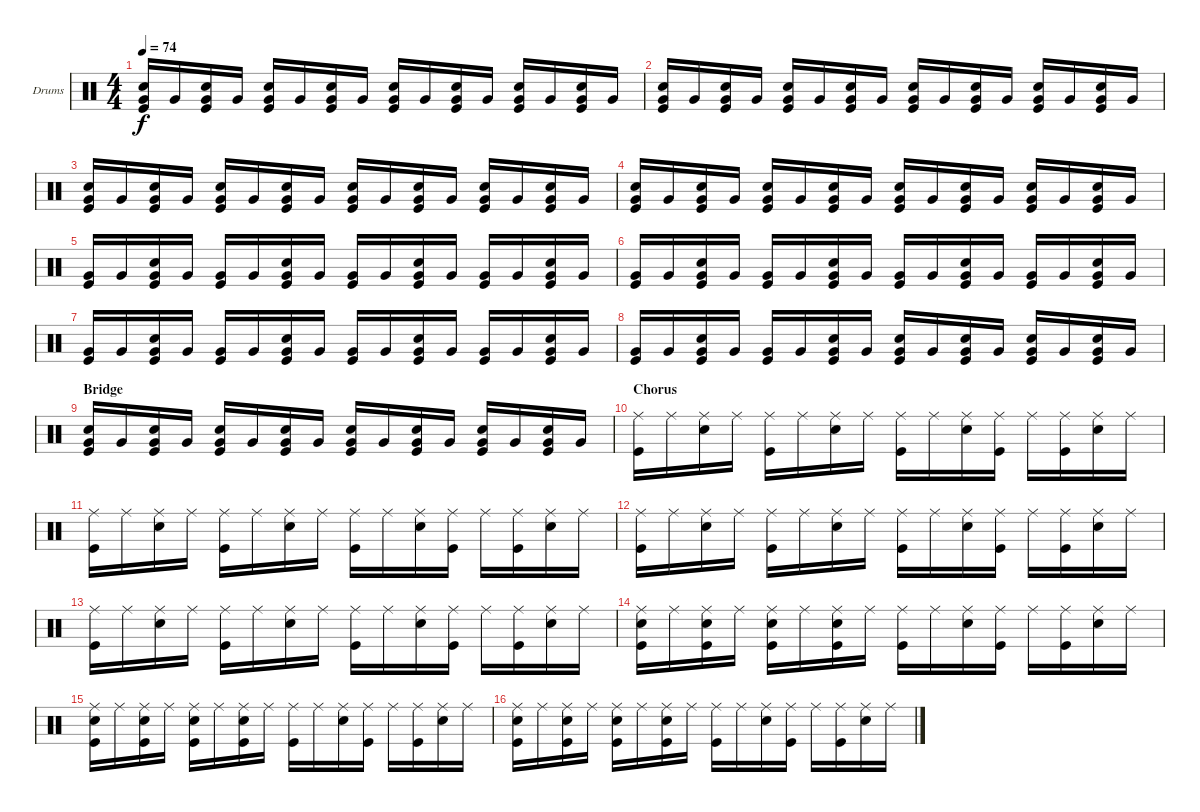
\bracketExtendMode groupsimilarinstruments
\firstSystemTrackNameOrientation horizontal
\otherSystemsTrackNameOrientation horizontal
\track ("Fabrizio" "Drums") {instrument percussion}
\staff {score}
\articulation defaults
\ts (4 4)
\tempo 74
\clef neutral
\ks c
("Very Low Tom (hit)" "Kick (hit)" "Snare (hit) 2").16{dy f} "Very Low Tom (hit)".16 ("Very Low Tom (hit)" "Kick (hit)" "Snare (hit) 2").16 "Very Low Tom (hit)".16 ("Very Low Tom (hit)" "Kick (hit)" "Snare (hit) 2").16 "Very Low Tom (hit)".16 ("Very Low Tom (hit)" "Kick (hit)" "Snare (hit) 2").16 "Very Low Tom (hit)".16 ("Very Low Tom (hit)" "Kick (hit)" "Snare (hit) 2").16 "Very Low Tom (hit)".16 ("Very Low Tom (hit)" "Kick (hit)" "Snare (hit) 2").16 "Very Low Tom (hit)".16 ("Very Low Tom (hit)" "Kick (hit)" "Snare (hit) 2").16 "Very Low Tom (hit)".16 ("Very Low Tom (hit)" "Kick (hit)" "Snare (hit) 2").16 "Very Low Tom (hit)".16 |
("Very Low Tom (hit)" "Kick (hit)" "Snare (hit) 2").16 "Very Low Tom (hit)".16 ("Very Low Tom (hit)" "Kick (hit)" "Snare (hit) 2").16 "Very Low Tom (hit)".16 ("Very Low Tom (hit)" "Kick (hit)" "Snare (hit) 2").16 "Very Low Tom (hit)".16 ("Very Low Tom (hit)" "Kick (hit)" "Snare (hit) 2").16 "Very Low Tom (hit)".16 ("Very Low Tom (hit)" "Kick (hit)" "Snare (hit) 2").16 "Very Low Tom (hit)".16 ("Very Low Tom (hit)" "Kick (hit)" "Snare (hit) 2").16 "Very Low Tom (hit)".16 ("Very Low Tom (hit)" "Kick (hit)" "Snare (hit) 2").16 "Very Low Tom (hit)".16 ("Very Low Tom (hit)" "Kick (hit)" "Snare (hit) 2").16 "Very Low Tom (hit)".16 |
("Very Low Tom (hit)" "Kick (hit)" "Snare (hit) 2").16 "Very Low Tom (hit)".16 ("Very Low Tom (hit)" "Kick (hit)" "Snare (hit) 2").16 "Very Low Tom (hit)".16 ("Very Low Tom (hit)" "Kick (hit)" "Snare (hit) 2").16 "Very Low Tom (hit)".16 ("Very Low Tom (hit)" "Kick (hit)" "Snare (hit) 2").16 "Very Low Tom (hit)".16 ("Very Low Tom (hit)" "Kick (hit)" "Snare (hit) 2").16 "Very Low Tom (hit)".16 ("Very Low Tom (hit)" "Kick (hit)" "Snare (hit) 2").16 "Very Low Tom (hit)".16 ("Very Low Tom (hit)" "Kick (hit)" "Snare (hit) 2").16 "Very Low Tom (hit)".16 ("Very Low Tom (hit)" "Kick (hit)" "Snare (hit) 2").16 "Very Low Tom (hit)".16 |
("Very Low Tom (hit)" "Kick (hit)" "Snare (hit) 2").16 "Very Low Tom (hit)".16 ("Very Low Tom (hit)" "Kick (hit)" "Snare (hit) 2").16 "Very Low Tom (hit)".16 ("Very Low Tom (hit)" "Kick (hit)" "Snare (hit) 2").16 "Very Low Tom (hit)".16 ("Very Low Tom (hit)" "Kick (hit)" "Snare (hit) 2").16 "Very Low Tom (hit)".16 ("Very Low Tom (hit)" "Kick (hit)" "Snare (hit) 2").16 "Very Low Tom (hit)".16 ("Very Low Tom (hit)" "Kick (hit)" "Snare (hit) 2").16 "Very Low Tom (hit)".16 ("Very Low Tom (hit)" "Kick (hit)" "Snare (hit) 2").16 "Very Low Tom (hit)".16 ("Very Low Tom (hit)" "Kick (hit)" "Snare (hit) 2").16 "Very Low Tom (hit)".16 |
("Very Low Tom (hit)" "Kick (hit)").16 "Very Low Tom (hit)".16 ("Very Low Tom (hit)" "Kick (hit)" "Snare (hit) 2").16 "Very Low Tom (hit)".16 ("Very Low Tom (hit)" "Kick (hit)").16 "Very Low Tom (hit)".16 ("Very Low Tom (hit)" "Kick (hit)" "Snare (hit) 2").16 "Very Low Tom (hit)".16 ("Very Low Tom (hit)" "Kick (hit)").16 "Very Low Tom (hit)".16 ("Very Low Tom (hit)" "Kick (hit)" "Snare (hit) 2").16 "Very Low Tom (hit)".16 ("Very Low Tom (hit)" "Kick (hit)").16 "Very Low Tom (hit)".16 ("Very Low Tom (hit)" "Kick (hit)" "Snare (hit) 2").16 "Very Low Tom (hit)".16 |
("Very Low Tom (hit)" "Kick (hit)").16 "Very Low Tom (hit)".16 ("Very Low Tom (hit)" "Kick (hit)" "Snare (hit) 2").16 "Very Low Tom (hit)".16 ("Very Low Tom (hit)" "Kick (hit)").16 "Very Low Tom (hit)".16 ("Very Low Tom (hit)" "Kick (hit)" "Snare (hit) 2").16 "Very Low Tom (hit)".16 ("Very Low Tom (hit)" "Kick (hit)").16 "Very Low Tom (hit)".16 ("Very Low Tom (hit)" "Kick (hit)" "Snare (hit) 2").16 "Very Low Tom (hit)".16 ("Very Low Tom (hit)" "Kick (hit)").16 "Very Low Tom (hit)".16 ("Very Low Tom (hit)" "Kick (hit)" "Snare (hit) 2").16 "Very Low Tom (hit)".16 |
("Very Low Tom (hit)" "Kick (hit)").16 "Very Low Tom (hit)".16 ("Very Low Tom (hit)" "Kick (hit)" "Snare (hit) 2").16 "Very Low Tom (hit)".16 ("Very Low Tom (hit)" "Kick (hit)").16 "Very Low Tom (hit)".16 ("Very Low Tom (hit)" "Kick (hit)" "Snare (hit) 2").16 "Very Low Tom (hit)".16 ("Very Low Tom (hit)" "Kick (hit)").16 "Very Low Tom (hit)".16 ("Very Low Tom (hit)" "Kick (hit)" "Snare (hit) 2").16 "Very Low Tom (hit)".16 ("Very Low Tom (hit)" "Kick (hit)").16 "Very Low Tom (hit)".16 ("Very Low Tom (hit)" "Kick (hit)" "Snare (hit) 2").16 "Very Low Tom (hit)".16 |
("Very Low Tom (hit)" "Kick (hit)").16 "Very Low Tom (hit)".16 ("Very Low Tom (hit)" "Kick (hit)" "Snare (hit) 2").16 "Very Low Tom (hit)".16 ("Very Low Tom (hit)" "Kick (hit)").16 "Very Low Tom (hit)".16 ("Very Low Tom (hit)" "Kick (hit)" "Snare (hit) 2").16 "Very Low Tom (hit)".16 ("Very Low Tom (hit)" "Kick (hit)" "Snare (hit) 2").16 "Very Low Tom (hit)".16 ("Very Low Tom (hit)" "Kick (hit)" "Snare (hit) 2").16 "Very Low Tom (hit)".16 ("Very Low Tom (hit)" "Kick (hit)" "Snare (hit) 2").16 "Very Low Tom (hit)".16 ("Very Low Tom (hit)" "Kick (hit)" "Snare (hit) 2").16 "Very Low Tom (hit)".16 |
\section ("" "Bridge")
("Very Low Tom (hit)" "Kick (hit)" "Snare (hit) 2").16 "Very Low Tom (hit)".16 ("Very Low Tom (hit)" "Kick (hit)" "Snare (hit) 2").16 "Very Low Tom (hit)".16 ("Very Low Tom (hit)" "Kick (hit)" "Snare (hit) 2").16 "Very Low Tom (hit)".16 ("Very Low Tom (hit)" "Kick (hit)" "Snare (hit) 2").16 "Very Low Tom (hit)".16 ("Very Low Tom (hit)" "Kick (hit)" "Snare (hit) 2").16 "Very Low Tom (hit)".16 ("Very Low Tom (hit)" "Kick (hit)" "Snare (hit) 2").16 "Very Low Tom (hit)".16 ("Very Low Tom (hit)" "Kick (hit)" "Snare (hit) 2").16 "Very Low Tom (hit)".16 ("Very Low Tom (hit)" "Kick (hit)" "Snare (hit) 2").16 "Very Low Tom (hit)".16 |
\section ("" "Chorus")
("Ride (middle)" "Kick (hit)").16 "Ride (middle)".16 ("Ride (middle)" "Snare (hit) 2").16 "Ride (middle)".16 ("Ride (middle)" "Kick (hit)").16 "Ride (middle)".16 ("Ride (middle)" "Snare (hit) 2").16 "Ride (middle)".16 ("Ride (middle)" "Kick (hit)").16 "Ride (middle)".16 ("Ride (middle)" "Snare (hit) 2").16 ("Ride (middle)" "Kick (hit)").16 "Ride (middle)".16 ("Ride (middle)" "Kick (hit)").16 ("Ride (middle)" "Snare (hit) 2").16 "Ride (middle)".16 |
("Ride (middle)" "Kick (hit)").16 "Ride (middle)".16 ("Ride (middle)" "Snare (hit) 2").16 "Ride (middle)".16 ("Ride (middle)" "Kick (hit)").16 "Ride (middle)".16 ("Ride (middle)" "Snare (hit) 2").16 "Ride (middle)".16 ("Ride (middle)" "Kick (hit)").16 "Ride (middle)".16 ("Ride (middle)" "Snare (hit) 2").16 ("Ride (middle)" "Kick (hit)").16 "Ride (middle)".16 ("Ride (middle)" "Kick (hit)").16 ("Ride (middle)" "Snare (hit) 2").16 "Ride (middle)".16 |
("Ride (middle)" "Kick (hit)").16 "Ride (middle)".16 ("Ride (middle)" "Snare (hit) 2").16 "Ride (middle)".16 ("Ride (middle)" "Kick (hit)").16 "Ride (middle)".16 ("Ride (middle)" "Snare (hit) 2").16 "Ride (middle)".16 ("Ride (middle)" "Kick (hit)").16 "Ride (middle)".16 ("Ride (middle)" "Snare (hit) 2").16 ("Ride (middle)" "Kick (hit)").16 "Ride (middle)".16 ("Ride (middle)" "Kick (hit)").16 ("Ride (middle)" "Snare (hit) 2").16 "Ride (middle)".16 |
("Ride (middle)" "Kick (hit)").16 "Ride (middle)".16 ("Ride (middle)" "Snare (hit) 2").16 "Ride (middle)".16 ("Ride (middle)" "Kick (hit)").16 "Ride (middle)".16 ("Ride (middle)" "Snare (hit) 2").16 "Ride (middle)".16 ("Ride (middle)" "Kick (hit)").16 "Ride (middle)".16 ("Ride (middle)" "Snare (hit) 2").16 ("Ride (middle)" "Kick (hit)").16 "Ride (middle)".16 ("Ride (middle)" "Kick (hit)").16 ("Ride (middle)" "Snare (hit) 2").16 "Ride (middle)".16 |
("Ride (middle)" "Kick (hit)" "Snare (hit) 2").16 "Ride (middle)".16 ("Ride (middle)" "Kick (hit)" "Snare (hit) 2").16 "Ride (middle)".16 ("Ride (middle)" "Kick (hit)" "Snare (hit) 2").16 "Ride (middle)".16 ("Ride (middle)" "Kick (hit)" "Snare (hit) 2").16 "Ride (middle)".16 ("Ride (middle)" "Kick (hit)").16 "Ride (middle)".16 ("Ride (middle)" "Snare (hit) 2").16 ("Ride (middle)" "Kick (hit)").16 "Ride (middle)".16 ("Ride (middle)" "Kick (hit)").16 ("Ride (middle)" "Snare (hit) 2").16 "Ride (middle)".16 |
("Ride (middle)" "Kick (hit)" "Snare (hit) 2").16 "Ride (middle)".16 ("Ride (middle)" "Kick (hit)" "Snare (hit) 2").16 "Ride (middle)".16 ("Ride (middle)" "Kick (hit)" "Snare (hit) 2").16 "Ride (middle)".16 ("Ride (middle)" "Kick (hit)" "Snare (hit) 2").16 "Ride (middle)".16 ("Ride (middle)" "Kick (hit)").16 "Ride (middle)".16 ("Ride (middle)" "Snare (hit) 2").16 ("Ride (middle)" "Kick (hit)").16 "Ride (middle)".16 ("Ride (middle)" "Kick (hit)").16 ("Ride (middle)" "Snare (hit) 2").16 "Ride (middle)".16 |
("Ride (middle)" "Kick (hit)" "Snare (hit) 2").16 "Ride (middle)".16 ("Ride (middle)" "Kick (hit)" "Snare (hit) 2").16 "Ride (middle)".16 ("Ride (middle)" "Kick (hit)" "Snare (hit) 2").16 "Ride (middle)".16 ("Ride (middle)" "Kick (hit)" "Snare (hit) 2").16 "Ride (middle)".16 ("Ride (middle)" "Kick (hit)").16 "Ride (middle)".16 ("Ride (middle)" "Snare (hit) 2").16 ("Ride (middle)" "Kick (hit)").16 "Ride (middle)".16 ("Ride (middle)" "Kick (hit)").16 ("Ride (middle)" "Snare (hit) 2").16 "Ride (middle)".16
